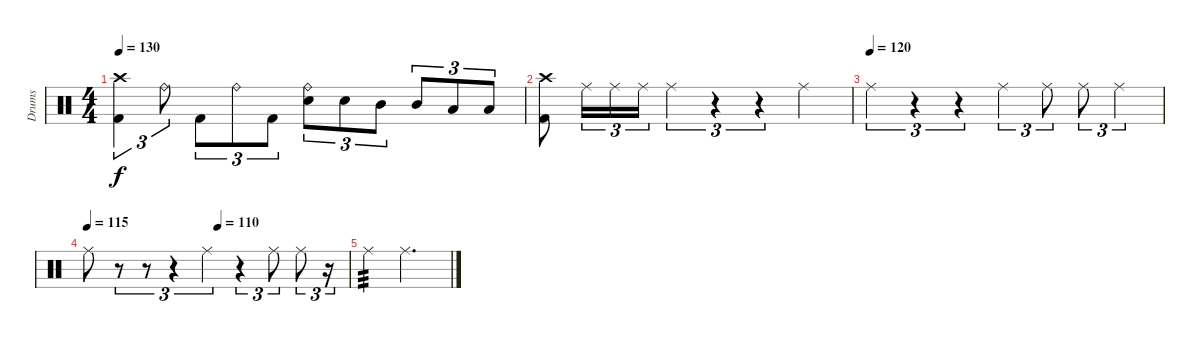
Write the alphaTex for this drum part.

\track ("Drums" "Drums") {instrument percussion}
\staff {score}
\articulation defaults
\ts (4 4)
\tempo 130
\clef neutral
\ks c
("Crash high (hit)" "Kick (hit) 2").4{tu (3 2) dy f} "Ride (bell)".8{tu (3 2)} "Kick (hit) 2".8{tu (3 2)} "Ride (bell)".8{tu (3 2)} "Kick (hit) 2".8{tu (3 2)} ("Ride (bell)" "Electric Snare (hit)").8{tu (3 2)} "Electric Snare (hit)".8{tu (3 2)} "Mid Tom (hit)".8{tu (3 2)} "Mid Tom (hit)".8{tu (3 2)} "Low Tom (hit)".8{tu (3 2)} "Low Tom (hit)".8{tu (3 2)} |
("Crash high (hit)" "Kick (hit) 2").8 "Ride (middle)".16{tu (3 2)} "Ride (middle)".16{tu (3 2)} "Ride (middle)".16{tu (3 2)} "Ride (middle)".4{tu (3 2)} r.4{tu (3 2)} r.4{tu (3 2)} "Ride (middle)".4 |
\tempo (120)
"Ride (middle)".4{tu (3 2)} r.4{tu (3 2)} r.4{tu (3 2)} "Ride (middle)".4{tu (3 2)} "Ride (middle)".8{tu (3 2)} "Ride (middle)".8{tu (3 2)} "Ride (middle)".4{tu (3 2)} |
\tempo 115
\tempo (110 0.5)
"Ride (middle)".8 r.8{tu (3 2)} r.8{tu (3 2)} r.4{tu (3 2)} "Ride (middle)".4{tu (3 2)} r.4{tu (3 2)} "Ride (middle)".8{tu (3 2)} "Ride (middle)".8{tu (3 2)} r.16{tu (3 2)} |
"Ride (middle)".4{tp 3} "Ride (middle)".2{d}
